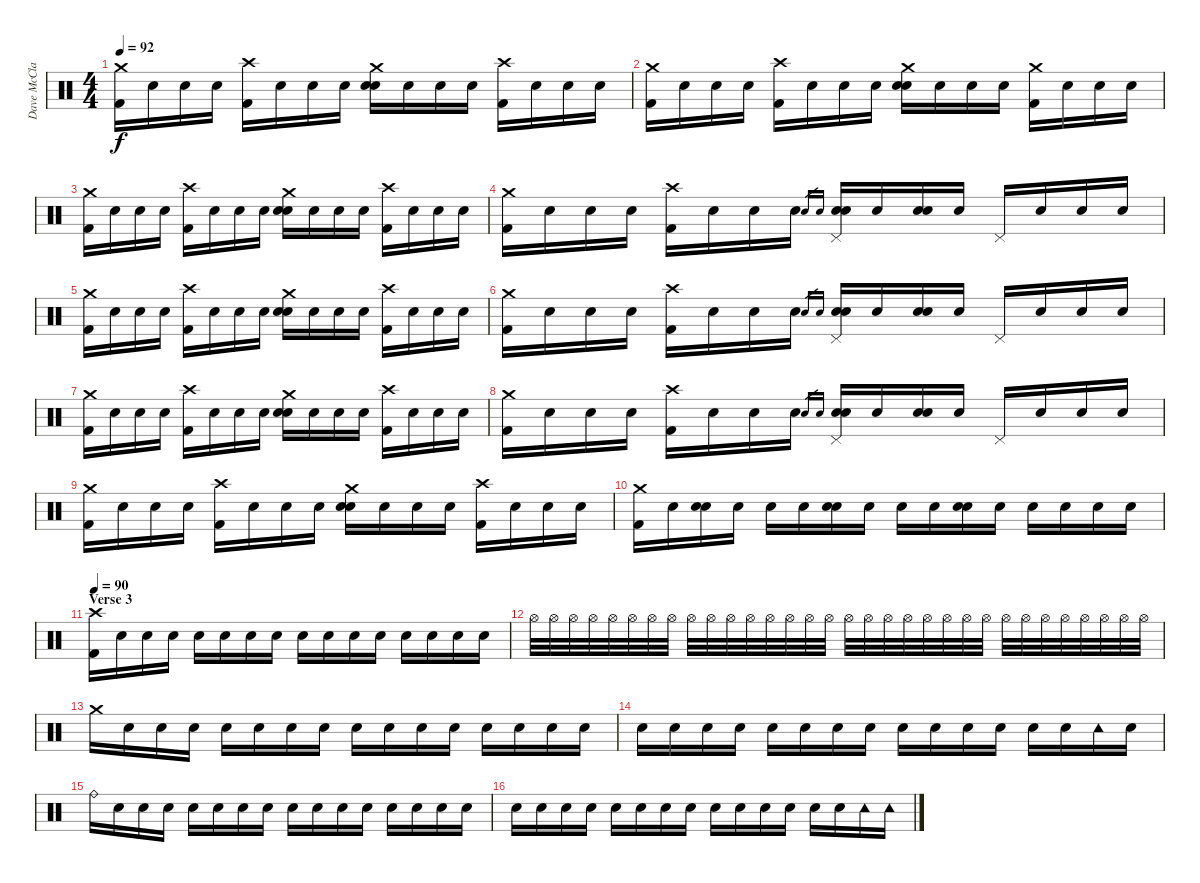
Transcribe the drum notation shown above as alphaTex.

\track ("Dave McClain - Drums" "Dave McCla") {instrument percussion}
\staff {score}
\articulation defaults
\ts (4 4)
\tempo 92
\clef neutral
\ks c
("Crash medium (hit)" "Kick (hit) 2").16{dy f} "Snare (hit)".16 "Snare (hit)".16 "Snare (hit)".16 ("Crash high (hit)" "Kick (hit) 2").16 "Snare (hit)".16 "Snare (hit)".16 "Snare (hit)".16 ("Crash medium (hit)" "Electric Snare (hit)" "Snare (hit) 2").16 "Snare (hit)".16 "Snare (hit)".16 "Snare (hit)".16 ("Crash high (hit)" "Kick (hit) 2").16 "Snare (hit)".16 "Snare (hit)".16 "Snare (hit)".16 |
("Crash medium (hit)" "Kick (hit) 2").16 "Snare (hit)".16 "Snare (hit)".16 "Snare (hit)".16 ("Crash high (hit)" "Kick (hit) 2").16 "Snare (hit)".16 "Snare (hit)".16 "Snare (hit)".16 ("Crash medium (hit)" "Electric Snare (hit)" "Snare (hit) 2").16 "Snare (hit)".16 "Snare (hit)".16 "Snare (hit)".16 ("Crash medium (hit)" "Kick (hit) 2").16 "Snare (hit)".16 "Snare (hit)".16 "Snare (hit)".16 |
("Crash medium (hit)" "Kick (hit) 2").16 "Snare (hit)".16 "Snare (hit)".16 "Snare (hit)".16 ("Crash high (hit)" "Kick (hit) 2").16 "Snare (hit)".16 "Snare (hit)".16 "Snare (hit)".16 ("Crash medium (hit)" "Electric Snare (hit)" "Snare (hit) 2").16 "Snare (hit)".16 "Snare (hit)".16 "Snare (hit)".16 ("Crash high (hit)" "Kick (hit) 2").16 "Snare (hit)".16 "Snare (hit)".16 "Snare (hit)".16 |
("Crash medium (hit)" "Kick (hit) 2").16 "Snare (hit)".16 "Snare (hit)".16 "Snare (hit)".16 ("Crash high (hit)" "Kick (hit) 2").16 "Snare (hit)".16 "Snare (hit)".16 "Snare (hit)".16 "Electric Snare (hit)".16{gr} "Snare (hit) 2".16{gr} ("Pedal Hi-Hat (hit)" "Electric Snare (hit)" "Snare (hit) 2").16 "Snare (hit)".16 ("Electric Snare (hit)" "Snare (hit) 2").16 "Snare (hit)".16 "Pedal Hi-Hat (hit)".16 "Snare (hit)".16 "Snare (hit)".16 "Snare (hit)".16 |
("Crash medium (hit)" "Kick (hit) 2").16 "Snare (hit)".16 "Snare (hit)".16 "Snare (hit)".16 ("Crash high (hit)" "Kick (hit) 2").16 "Snare (hit)".16 "Snare (hit)".16 "Snare (hit)".16 ("Crash medium (hit)" "Electric Snare (hit)" "Snare (hit) 2").16 "Snare (hit)".16 "Snare (hit)".16 "Snare (hit)".16 ("Crash high (hit)" "Kick (hit) 2").16 "Snare (hit)".16 "Snare (hit)".16 "Snare (hit)".16 |
("Crash medium (hit)" "Kick (hit) 2").16 "Snare (hit)".16 "Snare (hit)".16 "Snare (hit)".16 ("Crash high (hit)" "Kick (hit) 2").16 "Snare (hit)".16 "Snare (hit)".16 "Snare (hit)".16 "Electric Snare (hit)".16{gr} "Snare (hit) 2".16{gr} ("Pedal Hi-Hat (hit)" "Electric Snare (hit)" "Snare (hit) 2").16 "Snare (hit)".16 ("Electric Snare (hit)" "Snare (hit) 2").16 "Snare (hit)".16 "Pedal Hi-Hat (hit)".16 "Snare (hit)".16 "Snare (hit)".16 "Snare (hit)".16 |
("Crash medium (hit)" "Kick (hit) 2").16 "Snare (hit)".16 "Snare (hit)".16 "Snare (hit)".16 ("Crash high (hit)" "Kick (hit) 2").16 "Snare (hit)".16 "Snare (hit)".16 "Snare (hit)".16 ("Crash medium (hit)" "Electric Snare (hit)" "Snare (hit) 2").16 "Snare (hit)".16 "Snare (hit)".16 "Snare (hit)".16 ("Crash high (hit)" "Kick (hit) 2").16 "Snare (hit)".16 "Snare (hit)".16 "Snare (hit)".16 |
("Crash medium (hit)" "Kick (hit) 2").16 "Snare (hit)".16 "Snare (hit)".16 "Snare (hit)".16 ("Crash high (hit)" "Kick (hit) 2").16 "Snare (hit)".16 "Snare (hit)".16 "Snare (hit)".16 "Electric Snare (hit)".16{gr} "Snare (hit) 2".16{gr} ("Pedal Hi-Hat (hit)" "Electric Snare (hit)" "Snare (hit) 2").16 "Snare (hit)".16 ("Electric Snare (hit)" "Snare (hit) 2").16 "Snare (hit)".16 "Pedal Hi-Hat (hit)".16 "Snare (hit)".16 "Snare (hit)".16 "Snare (hit)".16 |
("Crash medium (hit)" "Kick (hit) 2").16 "Snare (hit)".16 "Snare (hit)".16 "Snare (hit)".16 ("Crash high (hit)" "Kick (hit) 2").16 "Snare (hit)".16 "Snare (hit)".16 "Snare (hit)".16 ("Crash medium (hit)" "Electric Snare (hit)" "Snare (hit) 2").16 "Snare (hit)".16 "Snare (hit)".16 "Snare (hit)".16 ("Crash high (hit)" "Kick (hit) 2").16 "Snare (hit)".16 "Snare (hit)".16 "Snare (hit)".16 |
("Crash medium (hit)" "Kick (hit) 2").16 "Snare (hit)".16 ("Electric Snare (hit)" "Snare (hit) 2").16 "Snare (hit)".16 "Snare (hit) 2".16 "Snare (hit)".16 ("Electric Snare (hit)" "Snare (hit) 2").16 "Snare (hit)".16 "Snare (hit) 2".16 "Snare (hit)".16 ("Electric Snare (hit)" "Snare (hit) 2").16 "Snare (hit)".16 "Snare (hit) 2".16 "Snare (hit) 2".16 "Snare (hit) 2".16 "Snare (hit) 2".16 |
\section ("" "Verse 3")
\tempo 90
("Crash high (hit)" "Kick (hit) 2").16 "Snare (hit)".16 "Snare (hit)".16 "Snare (hit)".16 "Snare (hit)".16 "Snare (hit)".16 "Snare (hit)".16 "Snare (hit)".16 "Snare (hit)".16 "Snare (hit)".16 "Snare (hit)".16 "Snare (hit)".16 "Snare (hit)".16 "Snare (hit)".16 "Snare (hit)".16 "Snare (hit)".16{volume 0} |
"Hi-Hat (open)".32{volume 16} "Hi-Hat (open)".32 "Hi-Hat (open)".32 "Hi-Hat (open)".32 "Hi-Hat (open)".32 "Hi-Hat (open)".32 "Hi-Hat (open)".32 "Hi-Hat (open)".32 "Hi-Hat (open)".32 "Hi-Hat (open)".32 "Hi-Hat (open)".32 "Hi-Hat (open)".32 "Hi-Hat (open)".32 "Hi-Hat (open)".32 "Hi-Hat (open)".32 "Hi-Hat (open)".32 "Hi-Hat (open)".32 "Hi-Hat (open)".32 "Hi-Hat (open)".32 "Hi-Hat (open)".32 "Hi-Hat (open)".32 "Hi-Hat (open)".32 "Hi-Hat (open)".32 "Hi-Hat (open)".32 "Hi-Hat (open)".32 "Hi-Hat (open)".32 "Hi-Hat (open)".32 "Hi-Hat (open)".32 "Hi-Hat (open)".32 "Hi-Hat (open)".32 "Hi-Hat (open)".32 "Hi-Hat (open)".32 |
"Crash medium (hit)".16 "Snare (hit)".16 "Snare (hit)".16 "Snare (hit)".16 "Snare (hit)".16 "Snare (hit)".16 "Snare (hit)".16 "Snare (hit)".16 "Snare (hit)".16 "Snare (hit)".16 "Snare (hit)".16 "Snare (hit)".16 "Snare (hit)".16 "Snare (hit)".16 "Snare (hit)".16 "Snare (hit)".16 |
"Snare (hit)".16 "Snare (hit)".16 "Snare (hit)".16 "Snare (hit)".16 "Snare (hit)".16 "Snare (hit)".16 "Snare (hit)".16 "Snare (hit)".16 "Snare (hit)".16 "Snare (hit)".16 "Snare (hit)".16 "Snare (hit)".16 "Snare (hit)".16 "Snare (hit)".16 "Tambourine (hit)".16{volume 10 balance 8} "Snare (hit)".16 |
"Ride (bell)".16 "Snare (hit)".16 "Snare (hit)".16 "Snare (hit)".16 "Snare (hit)".16 "Snare (hit)".16 "Snare (hit)".16 "Snare (hit)".16 "Snare (hit)".16 "Snare (hit)".16 "Snare (hit)".16 "Snare (hit)".16 "Snare (hit)".16 "Snare (hit)".16 "Snare (hit)".16 "Snare (hit)".16 |
"Snare (hit)".16 "Snare (hit)".16 "Snare (hit)".16 "Snare (hit)".16 "Snare (hit)".16 "Snare (hit)".16 "Snare (hit)".16 "Snare (hit)".16 "Snare (hit)".16 "Snare (hit)".16 "Snare (hit)".16 "Snare (hit)".16 "Snare (hit)".16 "Snare (hit)".16 "Tambourine (hit)".16 "Tambourine (hit)".16
